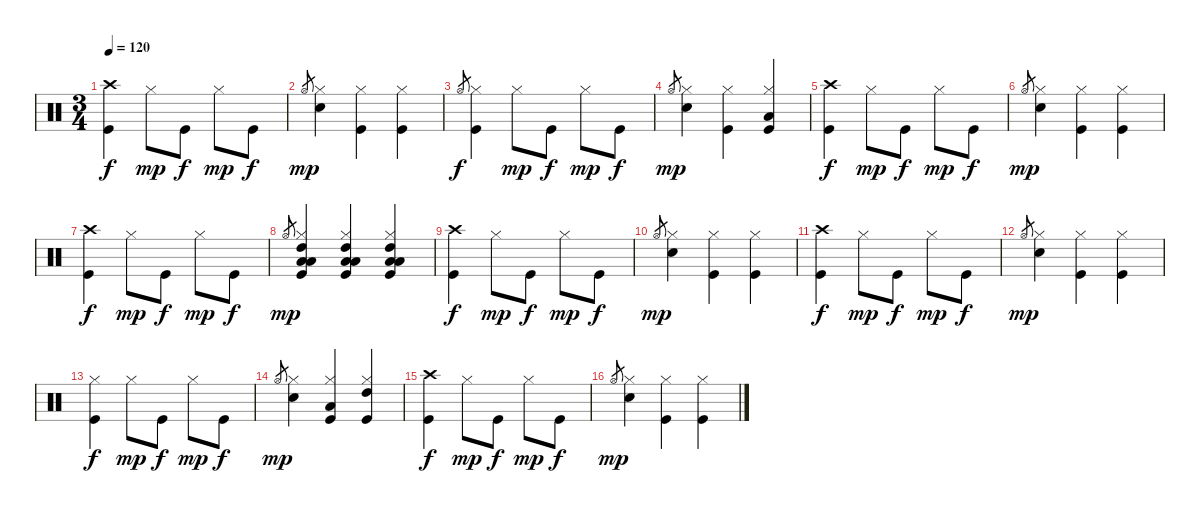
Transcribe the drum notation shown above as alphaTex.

\track "" {instrument percussion}
\staff {score}
\articulation defaults
\ts (3 4)
\tempo 120
\clef neutral
\ks c
("Crash high (hit)" "Kick (hit)").4{dy f} "Hi-Hat (closed)".8{dy mp} "Kick (hit)".8{dy f} "Hi-Hat (closed)".8{dy mp} "Kick (hit)".8{dy f} |
"Hi-Hat (open)".8{gr dy mp} ("Hi-Hat (closed)" "Electric Snare (hit)").4 ("Hi-Hat (closed)" "Kick (hit)").4 ("Hi-Hat (closed)" "Kick (hit)").4 |
"Hi-Hat (open)".8{gr dy f} ("Hi-Hat (closed)" "Kick (hit)").4 "Hi-Hat (closed)".8{dy mp} "Kick (hit)".8{dy f} "Hi-Hat (closed)".8{dy mp} "Kick (hit)".8{dy f} |
"Hi-Hat (open)".8{gr dy mp} ("Hi-Hat (closed)" "Electric Snare (hit)").4 ("Hi-Hat (closed)" "Kick (hit)").4 ("Hi-Hat (closed)" "Low Tom (hit)" "Kick (hit)").4 |
("Crash high (hit)" "Kick (hit)").4{dy f} "Hi-Hat (closed)".8{dy mp} "Kick (hit)".8{dy f} "Hi-Hat (closed)".8{dy mp} "Kick (hit)".8{dy f} |
"Hi-Hat (open)".8{gr dy mp} ("Hi-Hat (closed)" "Electric Snare (hit)").4 ("Hi-Hat (closed)" "Kick (hit)").4 ("Hi-Hat (closed)" "Kick (hit)").4 |
("Crash high (hit)" "Kick (hit)").4{dy f} "Hi-Hat (closed)".8{dy mp} "Kick (hit)".8{dy f} "Hi-Hat (closed)".8{dy mp} "Kick (hit)".8{dy f} |
"Hi-Hat (open)".8{gr dy mp} ("Hi-Hat (closed)" "High Tom (hit)" "Low Floor Tom (hit)" "Low Tom (hit)" "Kick (hit)").4 ("Hi-Hat (closed)" "High Tom (hit)" "Low Floor Tom (hit)" "Low Tom (hit)" "Kick (hit)").4 ("Hi-Hat (closed)" "High Tom (hit)" "Low Floor Tom (hit)" "Low Tom (hit)" "Kick (hit)").4 |
("Crash high (hit)" "Kick (hit)").4{dy f} "Hi-Hat (closed)".8{dy mp} "Kick (hit)".8{dy f} "Hi-Hat (closed)".8{dy mp} "Kick (hit)".8{dy f} |
"Hi-Hat (open)".8{gr dy mp} ("Hi-Hat (closed)" "Electric Snare (hit)").4 ("Hi-Hat (closed)" "Kick (hit)").4 ("Hi-Hat (closed)" "Kick (hit)").4 |
("Crash high (hit)" "Kick (hit)").4{dy f} "Hi-Hat (closed)".8{dy mp} "Kick (hit)".8{dy f} "Hi-Hat (closed)".8{dy mp} "Kick (hit)".8{dy f} |
"Hi-Hat (open)".8{gr dy mp} ("Hi-Hat (closed)" "Electric Snare (hit)").4 ("Hi-Hat (closed)" "Kick (hit)").4 ("Hi-Hat (closed)" "Kick (hit)").4 |
("Hi-Hat (closed)" "Kick (hit)").4{dy f} "Hi-Hat (closed)".8{dy mp} "Kick (hit)".8{dy f} "Hi-Hat (closed)".8{dy mp} "Kick (hit)".8{dy f} |
"Hi-Hat (open)".8{gr dy mp} ("Hi-Hat (closed)" "Electric Snare (hit)").4 ("Hi-Hat (closed)" "Low Tom (hit)" "Kick (hit)").4 ("Hi-Hat (closed)" "High Tom (hit)" "Kick (hit)").4 |
("Crash high (hit)" "Kick (hit)").4{dy f} "Hi-Hat (closed)".8{dy mp} "Kick (hit)".8{dy f} "Hi-Hat (closed)".8{dy mp} "Kick (hit)".8{dy f} |
"Hi-Hat (open)".8{gr dy mp} ("Hi-Hat (closed)" "Electric Snare (hit)").4 ("Hi-Hat (closed)" "Kick (hit)").4 ("Hi-Hat (closed)" "Kick (hit)").4
